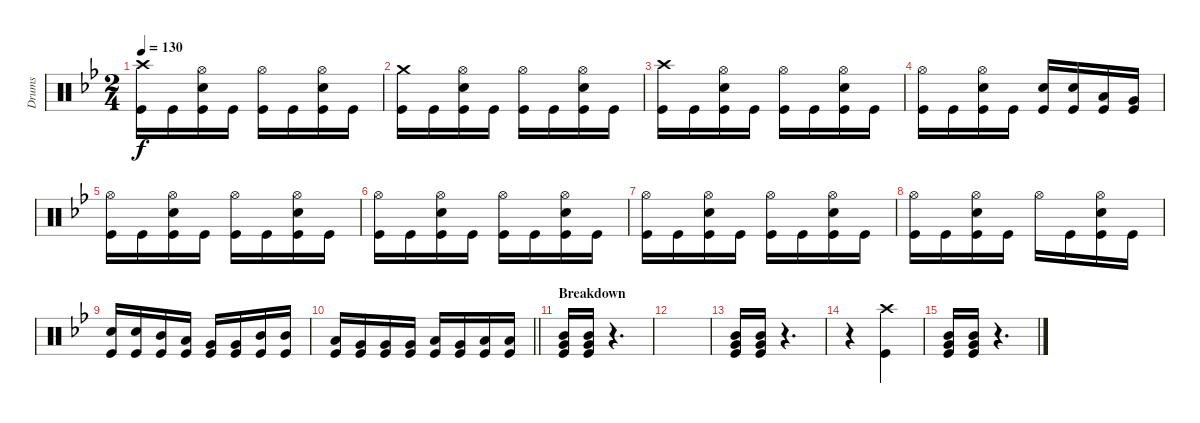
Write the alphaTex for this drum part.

\track ("Drums" "Drums") {instrument percussion}
\staff {score}
\articulation defaults
\ts (2 4)
\tempo 130
\clef neutral
\ks gminor
("Kick (hit)" "Crash high (hit)").16{dy f} "Kick (hit)".16 ("Kick (hit)" "Hi-Hat (open)" "Snare (hit) 2").16 "Kick (hit)".16 ("Kick (hit)" "Hi-Hat (open)").16 "Kick (hit)".16 ("Kick (hit)" "Hi-Hat (open)" "Snare (hit) 2").16 "Kick (hit)".16 |
("Kick (hit)" "Crash medium (hit)").16 "Kick (hit)".16 ("Kick (hit)" "Hi-Hat (open)" "Snare (hit) 2").16 "Kick (hit)".16 ("Kick (hit)" "Hi-Hat (open)").16 "Kick (hit)".16 ("Kick (hit)" "Hi-Hat (open)" "Snare (hit) 2").16 "Kick (hit)".16 |
("Kick (hit)" "Crash high (hit)").16 "Kick (hit)".16 ("Kick (hit)" "Hi-Hat (open)" "Snare (hit) 2").16 "Kick (hit)".16 ("Kick (hit)" "Hi-Hat (open)").16 "Kick (hit)".16 ("Kick (hit)" "Hi-Hat (open)" "Snare (hit) 2").16 "Kick (hit)".16 |
("Kick (hit)" "Hi-Hat (open)").16 "Kick (hit)".16 ("Kick (hit)" "Hi-Hat (open)" "Snare (hit) 2").16 "Kick (hit)".16 ("Kick (hit)" "Snare (hit) 2").16 ("Kick (hit)" "Snare (hit) 2").16 ("Kick (hit)" "Low Tom (hit)").16 ("Kick (hit)" "Very Low Tom (hit)").16 |
("Kick (hit)" "Hi-Hat (open)").16 "Kick (hit)".16 ("Kick (hit)" "Snare (hit) 2" "Hi-Hat (open)").16 "Kick (hit)".16 ("Kick (hit)" "Hi-Hat (open)").16 "Kick (hit)".16 ("Kick (hit)" "Snare (hit) 2" "Hi-Hat (open)").16 "Kick (hit)".16 |
("Kick (hit)" "Hi-Hat (open)").16 "Kick (hit)".16 ("Kick (hit)" "Snare (hit) 2" "Hi-Hat (open)").16 "Kick (hit)".16 ("Kick (hit)" "Hi-Hat (open)").16 "Kick (hit)".16 ("Kick (hit)" "Snare (hit) 2" "Hi-Hat (open)").16 "Kick (hit)".16 |
("Kick (hit)" "Hi-Hat (open)").16 "Kick (hit)".16 ("Kick (hit)" "Snare (hit) 2" "Hi-Hat (open)").16 "Kick (hit)".16 ("Kick (hit)" "Hi-Hat (open)").16 "Kick (hit)".16 ("Kick (hit)" "Snare (hit) 2" "Hi-Hat (open)").16 "Kick (hit)".16 |
("Kick (hit)" "Hi-Hat (open)").16 "Kick (hit)".16 ("Kick (hit)" "Snare (hit) 2" "Hi-Hat (open)").16 "Kick (hit)".16 "Hi-Hat (open)".16 "Kick (hit)".16 ("Kick (hit)" "Snare (hit) 2" "Hi-Hat (open)").16 "Kick (hit)".16 |
("Kick (hit)" "Snare (hit) 2").16 ("Kick (hit)" "Snare (hit) 2").16 ("Kick (hit)" "Mid Tom (hit)").16 ("Kick (hit)" "Low Tom (hit)").16 ("Kick (hit)" "Very Low Tom (hit)").16 ("Kick (hit)" "Very Low Tom (hit)").16 ("Kick (hit)" "Mid Tom (hit)").16 ("Kick (hit)" "Mid Tom (hit)").16 |
\barLineRight lightlight
("Kick (hit)" "Low Tom (hit)").16 ("Kick (hit)" "Very Low Tom (hit)").16 ("Kick (hit)" "Very Low Tom (hit)").16 ("Kick (hit)" "Very Low Tom (hit)").16 ("Kick (hit)" "Low Floor Tom (hit)").16 ("Kick (hit)" "Very Low Tom (hit)").16 ("Kick (hit)" "Low Tom (hit)").16 ("Kick (hit)" "Low Tom (hit)").16 |
\section ("" "Breakdown")
("Mid Tom (hit)" "Very Low Tom (hit)" "Kick (hit)").16 ("Mid Tom (hit)" "Very Low Tom (hit)" "Kick (hit)").16 r.4{d} |
|
("Kick (hit)" "Very Low Tom (hit)" "Mid Tom (hit)").16 ("Mid Tom (hit)" "Very Low Tom (hit)" "Kick (hit)").16 r.4{d} |
r.4 ("Crash high (hit)" "Kick (hit)").4 |
("Mid Tom (hit)" "Very Low Tom (hit)" "Kick (hit)").16 ("Mid Tom (hit)" "Very Low Tom (hit)" "Kick (hit)").16 r.4{d}
